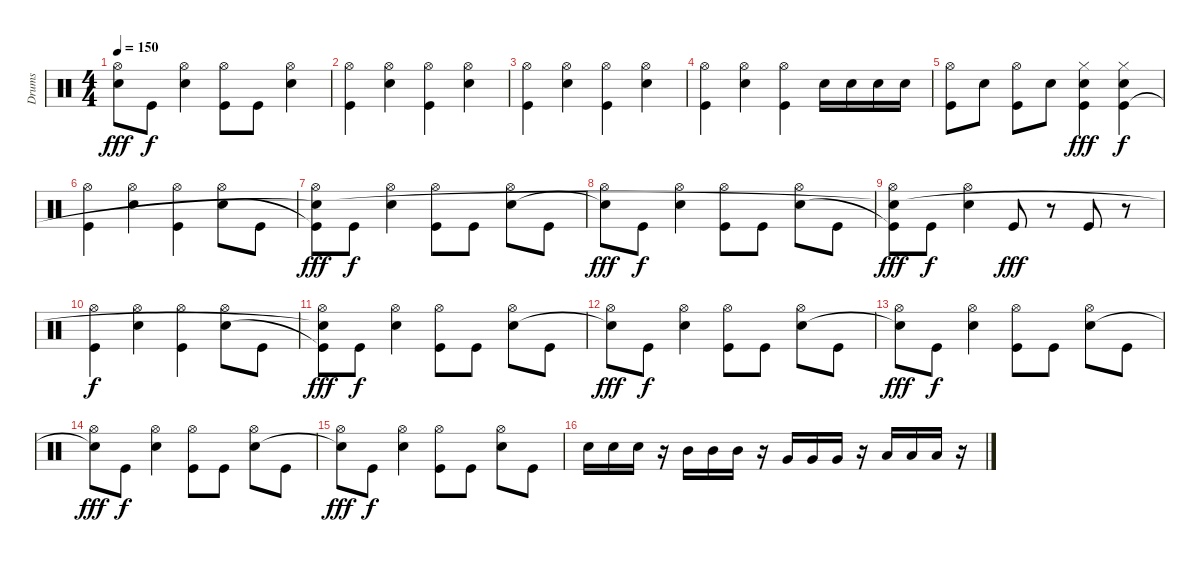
\track ("Drums" "Drums") {instrument percussion}
\staff {score}
\articulation defaults
\ts (4 4)
\tempo 150
\clef neutral
\ks c
("Hi-Hat (open)" "Snare (hit)"{t}).8{dy fff} "Kick (hit)".8{dy f} ("Hi-Hat (open)" "Snare (hit) 2").4 ("Hi-Hat (open)" "Kick (hit)").8 "Kick (hit)".8 ("Hi-Hat (open)" "Snare (hit) 2").4 |
("Hi-Hat (open)" "Kick (hit)").4 ("Hi-Hat (open)" "Snare (hit) 2").4 ("Hi-Hat (open)" "Kick (hit)").4 ("Hi-Hat (open)" "Snare (hit) 2").4 |
("Hi-Hat (open)" "Kick (hit)").4 ("Hi-Hat (open)" "Snare (hit) 2").4 ("Hi-Hat (open)" "Kick (hit)").4 ("Hi-Hat (open)" "Snare (hit) 2").4 |
("Hi-Hat (open)" "Kick (hit)").4 ("Hi-Hat (open)" "Snare (hit) 2").4 ("Hi-Hat (open)" "Kick (hit)").4 "Snare (hit) 2".16 "Snare (hit) 2".16 "Snare (hit) 2".16 "Snare (hit) 2".16 |
("Hi-Hat (open)" "Kick (hit)").8 "Snare (hit) 2".8 ("Hi-Hat (open)" "Kick (hit)").8 "Snare (hit) 2".8 ("Hi-Hat (closed)" "Snare (hit) 2" "Kick (hit)").4{dy fff} ("Hi-Hat (closed)" "Snare (hit) 2" "Kick (hit)").4{dy f} |
("Hi-Hat (open)" "Kick (hit)").4 ("Hi-Hat (open)" "Snare (hit) 2").4 ("Hi-Hat (open)" "Kick (hit)").4 ("Hi-Hat (open)" "Snare (hit) 2").8 "Kick (hit)".8 |
("Hi-Hat (open)" "Kick (hit)"{t} "Snare (hit)"{t}).8{dy fff} "Kick (hit)".8{dy f} ("Hi-Hat (open)" "Snare (hit) 2").4 ("Hi-Hat (open)" "Kick (hit)").8 "Kick (hit)".8 ("Hi-Hat (open)" "Snare (hit) 2").8 "Kick (hit)".8 |
("Hi-Hat (open)" "Snare (hit)"{t}).8{dy fff} "Kick (hit)".8{dy f} ("Hi-Hat (open)" "Snare (hit) 2").4 ("Hi-Hat (open)" "Kick (hit)").8 "Kick (hit)".8 ("Hi-Hat (open)" "Snare (hit) 2").8 "Kick (hit)".8 |
("Hi-Hat (open)" "Kick (hit)"{t} "Snare (hit)"{t}).8{dy fff} "Kick (hit)".8{dy f} ("Hi-Hat (open)" "Snare (hit) 2").4 "Kick (hit)".8{dy fff} r.8 "Kick (hit)".8 r.8 |
("Hi-Hat (open)" "Kick (hit)").4{dy f} ("Hi-Hat (open)" "Snare (hit) 2").4 ("Hi-Hat (open)" "Kick (hit)").4 ("Hi-Hat (open)" "Snare (hit) 2").8 "Kick (hit)".8 |
("Hi-Hat (open)" "Kick (hit)"{t} "Snare (hit)"{t}).8{dy fff} "Kick (hit)".8{dy f} ("Hi-Hat (open)" "Snare (hit) 2").4 ("Hi-Hat (open)" "Kick (hit)").8 "Kick (hit)".8 ("Hi-Hat (open)" "Snare (hit) 2").8 "Kick (hit)".8 |
("Hi-Hat (open)" "Snare (hit)"{t}).8{dy fff} "Kick (hit)".8{dy f} ("Hi-Hat (open)" "Snare (hit) 2").4 ("Hi-Hat (open)" "Kick (hit)").8 "Kick (hit)".8 ("Hi-Hat (open)" "Snare (hit) 2").8 "Kick (hit)".8 |
("Hi-Hat (open)" "Snare (hit)"{t}).8{dy fff} "Kick (hit)".8{dy f} ("Hi-Hat (open)" "Snare (hit) 2").4 ("Hi-Hat (open)" "Kick (hit)").8 "Kick (hit)".8 ("Hi-Hat (open)" "Snare (hit) 2").8 "Kick (hit)".8 |
("Hi-Hat (open)" "Snare (hit)"{t}).8{dy fff} "Kick (hit)".8{dy f} ("Hi-Hat (open)" "Snare (hit) 2").4 ("Hi-Hat (open)" "Kick (hit)").8 "Kick (hit)".8 ("Hi-Hat (open)" "Snare (hit) 2").8 "Kick (hit)".8 |
("Hi-Hat (open)" "Snare (hit)"{t}).8{dy fff} "Kick (hit)".8{dy f} ("Hi-Hat (open)" "Snare (hit) 2").4 ("Hi-Hat (open)" "Kick (hit)").8 "Kick (hit)".8 ("Hi-Hat (open)" "Snare (hit) 2").8 "Kick (hit)".8 |
"Snare (hit) 2".16 "Snare (hit) 2".16 "Snare (hit) 2".16 r.16 "Mid Tom (hit)".16 "Mid Tom (hit)".16 "Mid Tom (hit)".16 r.16 "Very Low Tom (hit)".16 "Very Low Tom (hit)".16 "Very Low Tom (hit)".16 r.16 "Low Floor Tom (hit)".16 "Low Floor Tom (hit)".16 "Low Floor Tom (hit)".16 r.16
